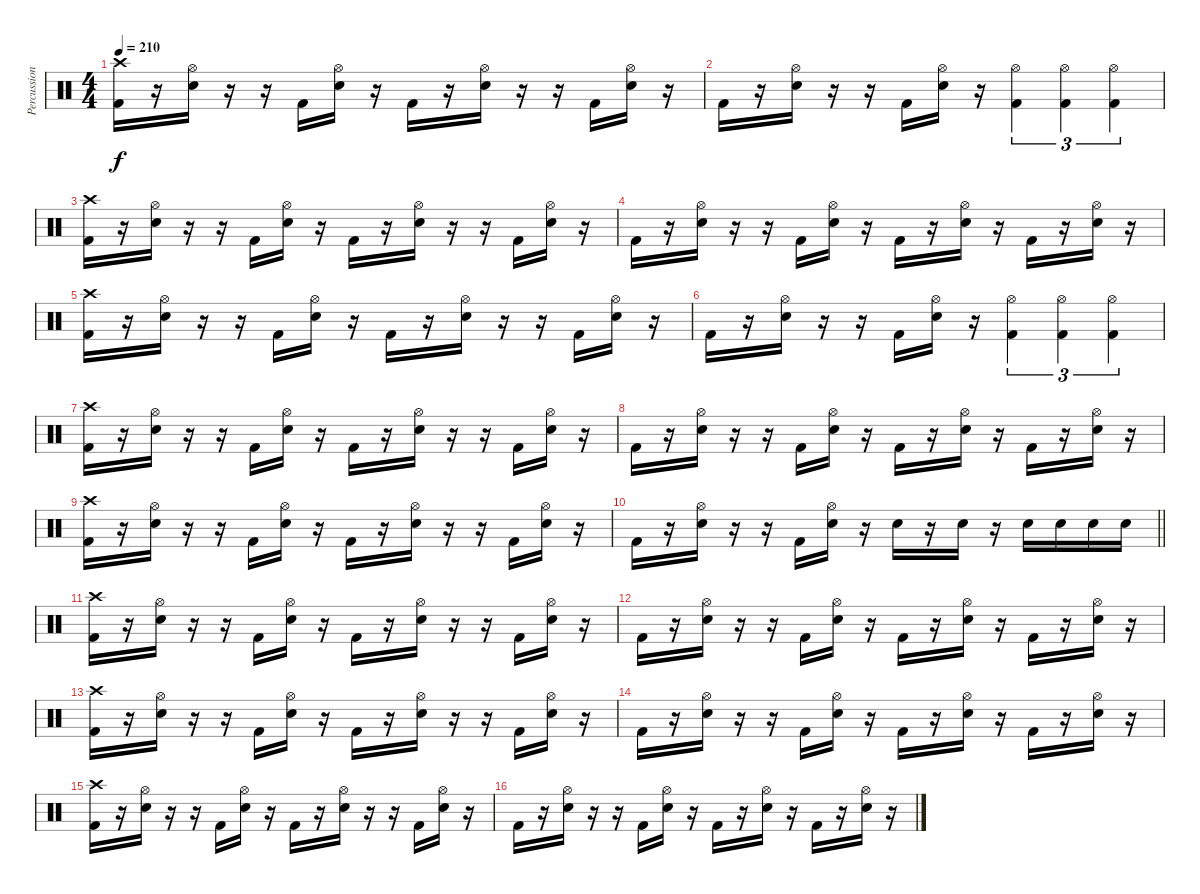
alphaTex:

\track ("Percussions" "Percussion") {instrument percussion}
\staff {score}
\articulation defaults
\ts (4 4)
\tempo 210
\clef neutral
\ks c
("Crash high (hit)" "Kick (hit) 2").16{dy f} r.16 ("Hi-Hat (open)" "Snare (hit) 2").16 r.16 r.16 "Kick (hit) 2".16 ("Hi-Hat (open)" "Snare (hit) 2").16 r.16 "Kick (hit) 2".16 r.16 ("Hi-Hat (open)" "Snare (hit) 2").16 r.16 r.16 "Kick (hit) 2".16 ("Hi-Hat (open)" "Snare (hit) 2").16 r.16 |
"Kick (hit) 2".16 r.16 ("Hi-Hat (open)" "Snare (hit) 2").16 r.16 r.16 "Kick (hit) 2".16 ("Hi-Hat (open)" "Snare (hit) 2").16 r.16 ("Hi-Hat (open)" "Kick (hit) 2").4{tu (3 2)} ("Hi-Hat (open)" "Kick (hit) 2").4{tu (3 2)} ("Hi-Hat (open)" "Kick (hit) 2").4{tu (3 2)} |
("Crash high (hit)" "Kick (hit) 2").16 r.16 ("Hi-Hat (open)" "Snare (hit) 2").16 r.16 r.16 "Kick (hit) 2".16 ("Hi-Hat (open)" "Snare (hit) 2").16 r.16 "Kick (hit) 2".16 r.16 ("Hi-Hat (open)" "Snare (hit) 2").16 r.16 r.16 "Kick (hit) 2".16 ("Hi-Hat (open)" "Snare (hit) 2").16 r.16 |
"Kick (hit) 2".16 r.16 ("Hi-Hat (open)" "Snare (hit) 2").16 r.16 r.16 "Kick (hit) 2".16 ("Hi-Hat (open)" "Snare (hit) 2").16 r.16 "Kick (hit) 2".16 r.16 ("Hi-Hat (open)" "Snare (hit) 2").16 r.16 "Kick (hit) 2".16 r.16 ("Hi-Hat (open)" "Snare (hit) 2").16 r.16 |
("Crash high (hit)" "Kick (hit) 2").16 r.16 ("Hi-Hat (open)" "Snare (hit) 2").16 r.16 r.16 "Kick (hit) 2".16 ("Hi-Hat (open)" "Snare (hit) 2").16 r.16 "Kick (hit) 2".16 r.16 ("Hi-Hat (open)" "Snare (hit) 2").16 r.16 r.16 "Kick (hit) 2".16 ("Hi-Hat (open)" "Snare (hit) 2").16 r.16 |
"Kick (hit) 2".16 r.16 ("Hi-Hat (open)" "Snare (hit) 2").16 r.16 r.16 "Kick (hit) 2".16 ("Hi-Hat (open)" "Snare (hit) 2").16 r.16 ("Hi-Hat (open)" "Kick (hit) 2").4{tu (3 2)} ("Hi-Hat (open)" "Kick (hit) 2").4{tu (3 2)} ("Hi-Hat (open)" "Kick (hit) 2").4{tu (3 2)} |
("Crash high (hit)" "Kick (hit) 2").16 r.16 ("Hi-Hat (open)" "Snare (hit) 2").16 r.16 r.16 "Kick (hit) 2".16 ("Hi-Hat (open)" "Snare (hit) 2").16 r.16 "Kick (hit) 2".16 r.16 ("Hi-Hat (open)" "Snare (hit) 2").16 r.16 r.16 "Kick (hit) 2".16 ("Hi-Hat (open)" "Snare (hit) 2").16 r.16 |
"Kick (hit) 2".16 r.16 ("Hi-Hat (open)" "Snare (hit) 2").16 r.16 r.16 "Kick (hit) 2".16 ("Hi-Hat (open)" "Snare (hit) 2").16 r.16 "Kick (hit) 2".16 r.16 ("Hi-Hat (open)" "Snare (hit) 2").16 r.16 "Kick (hit) 2".16 r.16 ("Hi-Hat (open)" "Snare (hit) 2").16 r.16 |
("Crash high (hit)" "Kick (hit) 2").16 r.16 ("Hi-Hat (open)" "Snare (hit) 2").16 r.16 r.16 "Kick (hit) 2".16 ("Hi-Hat (open)" "Snare (hit) 2").16 r.16 "Kick (hit) 2".16 r.16 ("Hi-Hat (open)" "Snare (hit) 2").16 r.16 r.16 "Kick (hit) 2".16 ("Hi-Hat (open)" "Snare (hit) 2").16 r.16 |
\barLineRight lightlight "Kick (hit) 2".16
r.16 ("Hi-Hat (open)" "Snare (hit) 2").16 r.16 r.16 "Kick (hit) 2".16 ("Hi-Hat (open)" "Snare (hit) 2").16 r.16 "Snare (hit) 2".16 r.16 "Snare (hit) 2".16 r.16 "Snare (hit) 2".16 "Snare (hit) 2".16 "Snare (hit) 2".16 "Snare (hit) 2".16 |
\section ("" "")
("Crash high (hit)" "Kick (hit) 2").16 r.16 ("Hi-Hat (open)" "Snare (hit) 2").16 r.16 r.16 "Kick (hit) 2".16 ("Hi-Hat (open)" "Snare (hit) 2").16 r.16 "Kick (hit) 2".16 r.16 ("Hi-Hat (open)" "Snare (hit) 2").16 r.16 r.16 "Kick (hit) 2".16 ("Hi-Hat (open)" "Snare (hit) 2").16 r.16 |
"Kick (hit) 2".16 r.16 ("Hi-Hat (open)" "Snare (hit) 2").16 r.16 r.16 "Kick (hit) 2".16 ("Hi-Hat (open)" "Snare (hit) 2").16 r.16 "Kick (hit) 2".16 r.16 ("Hi-Hat (open)" "Snare (hit) 2").16 r.16 "Kick (hit) 2".16 r.16 ("Hi-Hat (open)" "Snare (hit) 2").16 r.16 |
("Crash high (hit)" "Kick (hit) 2").16 r.16 ("Hi-Hat (open)" "Snare (hit) 2").16 r.16 r.16 "Kick (hit) 2".16 ("Hi-Hat (open)" "Snare (hit) 2").16 r.16 "Kick (hit) 2".16 r.16 ("Hi-Hat (open)" "Snare (hit) 2").16 r.16 r.16 "Kick (hit) 2".16 ("Hi-Hat (open)" "Snare (hit) 2").16 r.16 |
"Kick (hit) 2".16 r.16 ("Hi-Hat (open)" "Snare (hit) 2").16 r.16 r.16 "Kick (hit) 2".16 ("Hi-Hat (open)" "Snare (hit) 2").16 r.16 "Kick (hit) 2".16 r.16 ("Hi-Hat (open)" "Snare (hit) 2").16 r.16 "Kick (hit) 2".16 r.16 ("Hi-Hat (open)" "Snare (hit) 2").16 r.16 |
("Crash high (hit)" "Kick (hit) 2").16 r.16 ("Hi-Hat (open)" "Snare (hit) 2").16 r.16 r.16 "Kick (hit) 2".16 ("Hi-Hat (open)" "Snare (hit) 2").16 r.16 "Kick (hit) 2".16 r.16 ("Hi-Hat (open)" "Snare (hit) 2").16 r.16 r.16 "Kick (hit) 2".16 ("Hi-Hat (open)" "Snare (hit) 2").16 r.16 |
"Kick (hit) 2".16 r.16 ("Hi-Hat (open)" "Snare (hit) 2").16 r.16 r.16 "Kick (hit) 2".16 ("Hi-Hat (open)" "Snare (hit) 2").16 r.16 "Kick (hit) 2".16 r.16 ("Hi-Hat (open)" "Snare (hit) 2").16 r.16 "Kick (hit) 2".16 r.16 ("Hi-Hat (open)" "Snare (hit) 2").16 r.16
